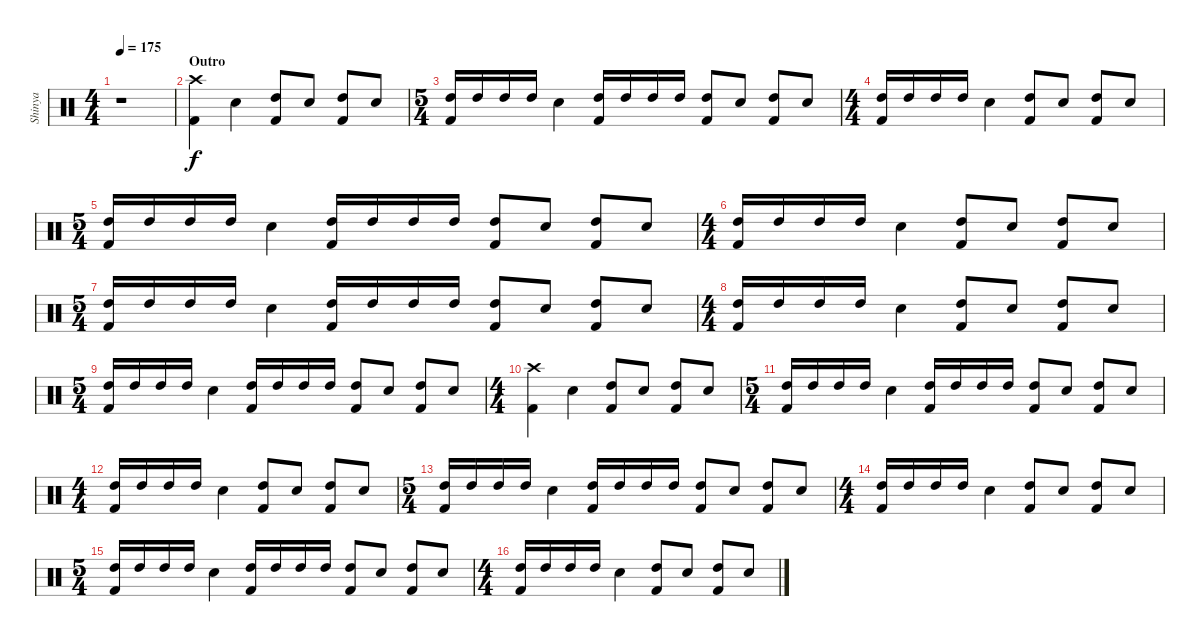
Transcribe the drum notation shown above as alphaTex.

\track ("Shinya" "Shinya") {instrument percussion}
\staff {score}
\articulation defaults
\ts (4 4)
\tempo 175
\clef neutral
\ks c
r.1{dy f} |
\section ("" "Outro")
("Crash high (hit)" "Kick (hit) 2").4 "Snare (hit) 2".4 ("Kick (hit) 2" "High Tom (hit)").8 "Snare (hit) 2".8 ("Kick (hit) 2" "High Tom (hit)").8 "Snare (hit) 2".8 |
\ts (5 4)
("Kick (hit) 2" "High Tom (hit)").16 "High Tom (hit)".16 "High Tom (hit)".16 "High Tom (hit)".16 "Snare (hit) 2".4 ("Kick (hit) 2" "High Tom (hit)").16 "High Tom (hit)".16 "High Tom (hit)".16 "High Tom (hit)".16 ("High Tom (hit)" "Kick (hit) 2").8 "Snare (hit) 2".8 ("High Tom (hit)" "Kick (hit) 2").8 "Snare (hit) 2".8 |
\ts (4 4)
("Kick (hit) 2" "High Tom (hit)").16 "High Tom (hit)".16 "High Tom (hit)".16 "High Tom (hit)".16 "Snare (hit) 2".4 ("Kick (hit) 2" "High Tom (hit)").8 "Snare (hit) 2".8 ("Kick (hit) 2" "High Tom (hit)").8 "Snare (hit) 2".8 |
\ts (5 4)
("Kick (hit) 2" "High Tom (hit)").16 "High Tom (hit)".16 "High Tom (hit)".16 "High Tom (hit)".16 "Snare (hit) 2".4 ("Kick (hit) 2" "High Tom (hit)").16 "High Tom (hit)".16 "High Tom (hit)".16 "High Tom (hit)".16 ("High Tom (hit)" "Kick (hit) 2").8 "Snare (hit) 2".8 ("High Tom (hit)" "Kick (hit) 2").8 "Snare (hit) 2".8 |
\ts (4 4)
("Kick (hit) 2" "High Tom (hit)").16 "High Tom (hit)".16 "High Tom (hit)".16 "High Tom (hit)".16 "Snare (hit) 2".4 ("Kick (hit) 2" "High Tom (hit)").8 "Snare (hit) 2".8 ("Kick (hit) 2" "High Tom (hit)").8 "Snare (hit) 2".8 |
\ts (5 4)
("Kick (hit) 2" "High Tom (hit)").16 "High Tom (hit)".16 "High Tom (hit)".16 "High Tom (hit)".16 "Snare (hit) 2".4 ("Kick (hit) 2" "High Tom (hit)").16 "High Tom (hit)".16 "High Tom (hit)".16 "High Tom (hit)".16 ("High Tom (hit)" "Kick (hit) 2").8 "Snare (hit) 2".8 ("High Tom (hit)" "Kick (hit) 2").8 "Snare (hit) 2".8 |
\ts (4 4)
("Kick (hit) 2" "High Tom (hit)").16 "High Tom (hit)".16 "High Tom (hit)".16 "High Tom (hit)".16 "Snare (hit) 2".4 ("Kick (hit) 2" "High Tom (hit)").8 "Snare (hit) 2".8 ("Kick (hit) 2" "High Tom (hit)").8 "Snare (hit) 2".8 |
\ts (5 4)
("Kick (hit) 2" "High Tom (hit)").16 "High Tom (hit)".16 "High Tom (hit)".16 "High Tom (hit)".16 "Snare (hit) 2".4 ("Kick (hit) 2" "High Tom (hit)").16 "High Tom (hit)".16 "High Tom (hit)".16 "High Tom (hit)".16 ("High Tom (hit)" "Kick (hit) 2").8 "Snare (hit) 2".8 ("High Tom (hit)" "Kick (hit) 2").8 "Snare (hit) 2".8 |
\ts (4 4)
("Crash high (hit)" "Kick (hit) 2").4 "Snare (hit) 2".4 ("Kick (hit) 2" "High Tom (hit)").8 "Snare (hit) 2".8 ("Kick (hit) 2" "High Tom (hit)").8 "Snare (hit) 2".8 |
\ts (5 4)
("Kick (hit) 2" "High Tom (hit)").16 "High Tom (hit)".16 "High Tom (hit)".16 "High Tom (hit)".16 "Snare (hit) 2".4 ("Kick (hit) 2" "High Tom (hit)").16 "High Tom (hit)".16 "High Tom (hit)".16 "High Tom (hit)".16 ("High Tom (hit)" "Kick (hit) 2").8 "Snare (hit) 2".8 ("High Tom (hit)" "Kick (hit) 2").8 "Snare (hit) 2".8 |
\ts (4 4)
("Kick (hit) 2" "High Tom (hit)").16 "High Tom (hit)".16 "High Tom (hit)".16 "High Tom (hit)".16 "Snare (hit) 2".4 ("Kick (hit) 2" "High Tom (hit)").8 "Snare (hit) 2".8 ("Kick (hit) 2" "High Tom (hit)").8 "Snare (hit) 2".8 |
\ts (5 4)
("Kick (hit) 2" "High Tom (hit)").16 "High Tom (hit)".16 "High Tom (hit)".16 "High Tom (hit)".16 "Snare (hit) 2".4 ("Kick (hit) 2" "High Tom (hit)").16 "High Tom (hit)".16 "High Tom (hit)".16 "High Tom (hit)".16 ("High Tom (hit)" "Kick (hit) 2").8 "Snare (hit) 2".8 ("High Tom (hit)" "Kick (hit) 2").8 "Snare (hit) 2".8 |
\ts (4 4)
("Kick (hit) 2" "High Tom (hit)").16 "High Tom (hit)".16 "High Tom (hit)".16 "High Tom (hit)".16 "Snare (hit) 2".4 ("Kick (hit) 2" "High Tom (hit)").8 "Snare (hit) 2".8 ("Kick (hit) 2" "High Tom (hit)").8 "Snare (hit) 2".8 |
\ts (5 4)
("Kick (hit) 2" "High Tom (hit)").16 "High Tom (hit)".16 "High Tom (hit)".16 "High Tom (hit)".16 "Snare (hit) 2".4 ("Kick (hit) 2" "High Tom (hit)").16 "High Tom (hit)".16 "High Tom (hit)".16 "High Tom (hit)".16 ("High Tom (hit)" "Kick (hit) 2").8 "Snare (hit) 2".8 ("High Tom (hit)" "Kick (hit) 2").8 "Snare (hit) 2".8 |
\ts (4 4)
("Kick (hit) 2" "High Tom (hit)").16 "High Tom (hit)".16 "High Tom (hit)".16 "High Tom (hit)".16 "Snare (hit) 2".4 ("Kick (hit) 2" "High Tom (hit)").8 "Snare (hit) 2".8 ("Kick (hit) 2" "High Tom (hit)").8 "Snare (hit) 2".8
